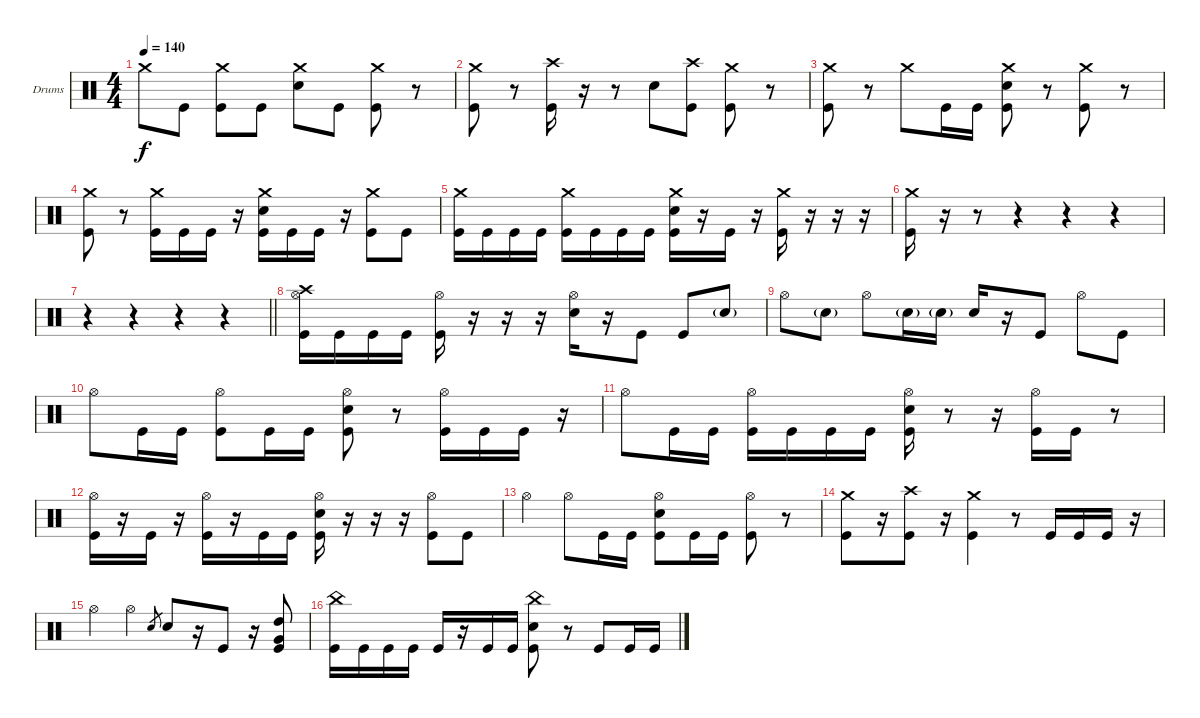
\bracketExtendMode groupsimilarinstruments
\firstSystemTrackNameOrientation horizontal
\otherSystemsTrackNameOrientation horizontal
\track ("Drumkit" "Drums") {instrument percussion}
\staff {score}
\articulation defaults
\ts (4 4)
\tempo 140
\clef neutral
\ks c "Crash medium (hit)".8{dy f} "Kick (hit)".8
("Kick (hit)" "Crash medium (hit)").8 "Kick (hit)".8 ("Crash medium (hit)" "Snare (hit) 2").8 "Kick (hit)".8 ("Kick (hit)" "Crash medium (hit)").8 r.8 |
("Crash medium (hit)" "Kick (hit)").8 r.8 ("Kick (hit)" "Crash high (hit)").16 r.16 r.8 "Snare (hit) 2".8 ("Kick (hit)" "Crash high (hit)").8 ("Kick (hit)" "Crash medium (hit)").8 r.8 |
("Crash medium (hit)" "Kick (hit)").8 r.8 "Crash medium (hit)".8 "Kick (hit)".16 "Kick (hit)".16 ("Kick (hit)" "Crash medium (hit)" "Snare (hit) 2").8 r.8 ("Kick (hit)" "Crash medium (hit)").8 r.8 |
("Crash medium (hit)" "Kick (hit)").8 r.8 ("Kick (hit)" "Crash medium (hit)").16 "Kick (hit)".16 "Kick (hit)".16 r.16 ("Kick (hit)" "Crash medium (hit)" "Snare (hit) 2").16 "Kick (hit)".16 "Kick (hit)".16 r.16 ("Kick (hit)" "Crash medium (hit)").8 "Kick (hit)".8 |
("Crash medium (hit)" "Kick (hit)").16 "Kick (hit)".16 "Kick (hit)".16 "Kick (hit)".16 ("Kick (hit)" "Crash medium (hit)").16 "Kick (hit)".16 "Kick (hit)".16 "Kick (hit)".16 ("Kick (hit)" "Crash medium (hit)" "Snare (hit) 2").16 r.16 "Kick (hit)".16 r.16 ("Kick (hit)" "Crash medium (hit)").16 r.16 r.16 r.16 |
("Kick (hit)" "Crash medium (hit)").16 r.16 r.8 r.4 r.4 r.4 |
\barLineRight lightlight
r.4 r.4 r.4 r.4 |
\section ("" "")
("Kick (hit)" "Crash high (hit)" "Hi-Hat (open)").16 "Kick (hit)".16 "Kick (hit)".16 "Kick (hit)".16 ("Kick (hit)" "Hi-Hat (open)").16 r.16 r.16 r.16 ("Hi-Hat (open)" "Snare (hit) 2").16 r.16 "Kick (hit)".8 "Kick (hit)".8 "Snare (hit) 2"{g}.8 |
"Hi-Hat (open)".8 "Snare (hit) 2"{g}.8 "Hi-Hat (open)".8 "Snare (hit) 2"{g}.16 "Snare (hit) 2"{g}.16 "Snare (hit) 2".16 r.16 "Kick (hit)".8 "Hi-Hat (open)".8 "Kick (hit)".8 |
"Hi-Hat (open)".8 "Kick (hit)".16 "Kick (hit)".16 ("Kick (hit)" "Hi-Hat (open)").8 "Kick (hit)".16 "Kick (hit)".16 ("Kick (hit)" "Hi-Hat (open)" "Snare (hit) 2").8 r.8 ("Kick (hit)" "Hi-Hat (open)").16 "Kick (hit)".16 "Kick (hit)".16 r.16 |
"Hi-Hat (open)".8 "Kick (hit)".16 "Kick (hit)".16 ("Kick (hit)" "Hi-Hat (open)").16 "Kick (hit)".16 "Kick (hit)".16 "Kick (hit)".16 ("Kick (hit)" "Hi-Hat (open)" "Snare (hit) 2").16 r.8 r.16 ("Kick (hit)" "Hi-Hat (open)").16 "Kick (hit)".16 r.8 |
("Kick (hit)" "Hi-Hat (open)").16 r.16 "Kick (hit)".16 r.16 ("Kick (hit)" "Hi-Hat (open)").16 r.16 "Kick (hit)".16 "Kick (hit)".16 ("Kick (hit)" "Hi-Hat (open)" "Snare (hit) 2").16 r.16 r.16 r.16 ("Kick (hit)" "Hi-Hat (open)").8 "Kick (hit)".8 |
"Hi-Hat (open)".4 "Hi-Hat (open)".8 "Kick (hit)".16 "Kick (hit)".16 ("Kick (hit)" "Hi-Hat (open)" "Snare (hit) 2").8 "Kick (hit)".16 "Kick (hit)".16 ("Kick (hit)" "Hi-Hat (open)").8 r.8 |
("Crash medium (hit)" "Kick (hit)").8 r.16 ("Kick (hit)" "Crash high (hit)").8 r.16 ("Kick (hit)" "Crash medium (hit)").4 r.8 "Kick (hit)".16 "Kick (hit)".16 "Kick (hit)".16 r.16 |
"Hi-Hat (open)".4 "Hi-Hat (open)".4 "Snare (hit) 2".8{gr} "Snare (hit) 2".8 r.16 "Kick (hit)".8 r.16 ("Very Low Tom (hit)" "High Tom (hit)" "Kick (hit)").8 |
("Kick (hit)" "China (hit)").16 "Kick (hit)".16 "Kick (hit)".16 "Kick (hit)".16 "Kick (hit)".16 r.16 "Kick (hit)".16 "Kick (hit)".16 ("Kick (hit)" "China (hit)" "Snare (hit) 2").8 r.8 "Kick (hit)".8 "Kick (hit)".16 "Kick (hit)".16
